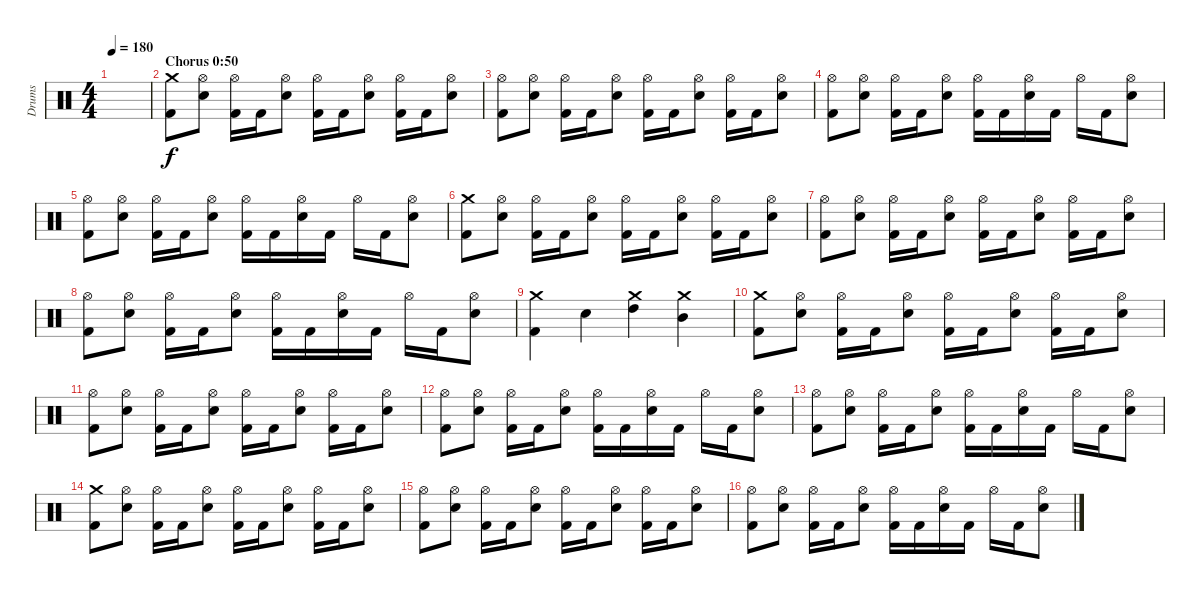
\track ("Drums" "Drums") {instrument percussion}
\staff {score}
\articulation defaults
\ts (4 4)
\tempo 180
\clef neutral
\ks c
|
\section ("" "Chorus 0:50")
("Crash medium (hit)" "Kick (hit) 2").8 ("Hi-Hat (open)" "Electric Snare (hit)").8 ("Hi-Hat (open)" "Kick (hit) 2").16 "Kick (hit) 2".16 ("Hi-Hat (open)" "Electric Snare (hit)").8 ("Hi-Hat (open)" "Kick (hit) 2").16 "Kick (hit) 2".16 ("Hi-Hat (open)" "Electric Snare (hit)").8 ("Hi-Hat (open)" "Kick (hit) 2").16 "Kick (hit) 2".16 ("Hi-Hat (open)" "Electric Snare (hit)").8 |
("Hi-Hat (open)" "Kick (hit) 2").8 ("Hi-Hat (open)" "Electric Snare (hit)").8 ("Hi-Hat (open)" "Kick (hit) 2").16 "Kick (hit) 2".16 ("Hi-Hat (open)" "Electric Snare (hit)").8 ("Hi-Hat (open)" "Kick (hit) 2").16 "Kick (hit) 2".16 ("Hi-Hat (open)" "Electric Snare (hit)").8 ("Hi-Hat (open)" "Kick (hit) 2").16 "Kick (hit) 2".16 ("Hi-Hat (open)" "Electric Snare (hit)").8 |
("Hi-Hat (open)" "Kick (hit) 2").8 ("Hi-Hat (open)" "Electric Snare (hit)").8 ("Hi-Hat (open)" "Kick (hit) 2").16 "Kick (hit) 2".16 ("Hi-Hat (open)" "Electric Snare (hit)").8 ("Hi-Hat (open)" "Kick (hit) 2").16 "Kick (hit) 2".16 ("Hi-Hat (open)" "Electric Snare (hit)").16 "Kick (hit) 2".16 "Hi-Hat (open)".16 "Kick (hit) 2".16 ("Hi-Hat (open)" "Electric Snare (hit)").8 |
("Hi-Hat (open)" "Kick (hit) 2").8 ("Hi-Hat (open)" "Electric Snare (hit)").8 ("Hi-Hat (open)" "Kick (hit) 2").16 "Kick (hit) 2".16 ("Hi-Hat (open)" "Electric Snare (hit)").8 ("Hi-Hat (open)" "Kick (hit) 2").16 "Kick (hit) 2".16 ("Hi-Hat (open)" "Electric Snare (hit)").16 "Kick (hit) 2".16 "Hi-Hat (open)".16 "Kick (hit) 2".16 ("Hi-Hat (open)" "Electric Snare (hit)").8 |
("Crash medium (hit)" "Kick (hit) 2").8 ("Hi-Hat (open)" "Electric Snare (hit)").8 ("Hi-Hat (open)" "Kick (hit) 2").16 "Kick (hit) 2".16 ("Hi-Hat (open)" "Electric Snare (hit)").8 ("Hi-Hat (open)" "Kick (hit) 2").16 "Kick (hit) 2".16 ("Hi-Hat (open)" "Electric Snare (hit)").8 ("Hi-Hat (open)" "Kick (hit) 2").16 "Kick (hit) 2".16 ("Hi-Hat (open)" "Electric Snare (hit)").8 |
("Hi-Hat (open)" "Kick (hit) 2").8 ("Hi-Hat (open)" "Electric Snare (hit)").8 ("Hi-Hat (open)" "Kick (hit) 2").16 "Kick (hit) 2".16 ("Hi-Hat (open)" "Electric Snare (hit)").8 ("Hi-Hat (open)" "Kick (hit) 2").16 "Kick (hit) 2".16 ("Hi-Hat (open)" "Electric Snare (hit)").8 ("Hi-Hat (open)" "Kick (hit) 2").16 "Kick (hit) 2".16 ("Hi-Hat (open)" "Electric Snare (hit)").8 |
("Hi-Hat (open)" "Kick (hit) 2").8 ("Hi-Hat (open)" "Electric Snare (hit)").8 ("Hi-Hat (open)" "Kick (hit) 2").16 "Kick (hit) 2".16 ("Hi-Hat (open)" "Electric Snare (hit)").8 ("Hi-Hat (open)" "Kick (hit) 2").16 "Kick (hit) 2".16 ("Hi-Hat (open)" "Electric Snare (hit)").16 "Kick (hit) 2".16 "Hi-Hat (open)".16 "Kick (hit) 2".16 ("Hi-Hat (open)" "Electric Snare (hit)").8 |
("Crash medium (hit)" "Kick (hit) 2").4 "Electric Snare (hit)".4 ("Crash medium (hit)" "High Tom (hit)").4 ("Crash medium (hit)" "Mid Tom (hit)").4 |
("Crash medium (hit)" "Kick (hit) 2").8 ("Hi-Hat (open)" "Electric Snare (hit)").8 ("Hi-Hat (open)" "Kick (hit) 2").16 "Kick (hit) 2".16 ("Hi-Hat (open)" "Electric Snare (hit)").8 ("Hi-Hat (open)" "Kick (hit) 2").16 "Kick (hit) 2".16 ("Hi-Hat (open)" "Electric Snare (hit)").8 ("Hi-Hat (open)" "Kick (hit) 2").16 "Kick (hit) 2".16 ("Hi-Hat (open)" "Electric Snare (hit)").8 |
("Hi-Hat (open)" "Kick (hit) 2").8 ("Hi-Hat (open)" "Electric Snare (hit)").8 ("Hi-Hat (open)" "Kick (hit) 2").16 "Kick (hit) 2".16 ("Hi-Hat (open)" "Electric Snare (hit)").8 ("Hi-Hat (open)" "Kick (hit) 2").16 "Kick (hit) 2".16 ("Hi-Hat (open)" "Electric Snare (hit)").8 ("Hi-Hat (open)" "Kick (hit) 2").16 "Kick (hit) 2".16 ("Hi-Hat (open)" "Electric Snare (hit)").8 |
("Hi-Hat (open)" "Kick (hit) 2").8 ("Hi-Hat (open)" "Electric Snare (hit)").8 ("Hi-Hat (open)" "Kick (hit) 2").16 "Kick (hit) 2".16 ("Hi-Hat (open)" "Electric Snare (hit)").8 ("Hi-Hat (open)" "Kick (hit) 2").16 "Kick (hit) 2".16 ("Hi-Hat (open)" "Electric Snare (hit)").16 "Kick (hit) 2".16 "Hi-Hat (open)".16 "Kick (hit) 2".16 ("Hi-Hat (open)" "Electric Snare (hit)").8 |
("Hi-Hat (open)" "Kick (hit) 2").8 ("Hi-Hat (open)" "Electric Snare (hit)").8 ("Hi-Hat (open)" "Kick (hit) 2").16 "Kick (hit) 2".16 ("Hi-Hat (open)" "Electric Snare (hit)").8 ("Hi-Hat (open)" "Kick (hit) 2").16 "Kick (hit) 2".16 ("Hi-Hat (open)" "Electric Snare (hit)").16 "Kick (hit) 2".16 "Hi-Hat (open)".16 "Kick (hit) 2".16 ("Hi-Hat (open)" "Electric Snare (hit)").8 |
("Crash medium (hit)" "Kick (hit) 2").8 ("Hi-Hat (open)" "Electric Snare (hit)").8 ("Hi-Hat (open)" "Kick (hit) 2").16 "Kick (hit) 2".16 ("Hi-Hat (open)" "Electric Snare (hit)").8 ("Hi-Hat (open)" "Kick (hit) 2").16 "Kick (hit) 2".16 ("Hi-Hat (open)" "Electric Snare (hit)").8 ("Hi-Hat (open)" "Kick (hit) 2").16 "Kick (hit) 2".16 ("Hi-Hat (open)" "Electric Snare (hit)").8 |
("Hi-Hat (open)" "Kick (hit) 2").8 ("Hi-Hat (open)" "Electric Snare (hit)").8 ("Hi-Hat (open)" "Kick (hit) 2").16 "Kick (hit) 2".16 ("Hi-Hat (open)" "Electric Snare (hit)").8 ("Hi-Hat (open)" "Kick (hit) 2").16 "Kick (hit) 2".16 ("Hi-Hat (open)" "Electric Snare (hit)").8 ("Hi-Hat (open)" "Kick (hit) 2").16 "Kick (hit) 2".16 ("Hi-Hat (open)" "Electric Snare (hit)").8 |
("Hi-Hat (open)" "Kick (hit) 2").8 ("Hi-Hat (open)" "Electric Snare (hit)").8 ("Hi-Hat (open)" "Kick (hit) 2").16 "Kick (hit) 2".16 ("Hi-Hat (open)" "Electric Snare (hit)").8 ("Hi-Hat (open)" "Kick (hit) 2").16 "Kick (hit) 2".16 ("Hi-Hat (open)" "Electric Snare (hit)").16 "Kick (hit) 2".16 "Hi-Hat (open)".16 "Kick (hit) 2".16 ("Hi-Hat (open)" "Electric Snare (hit)").8
